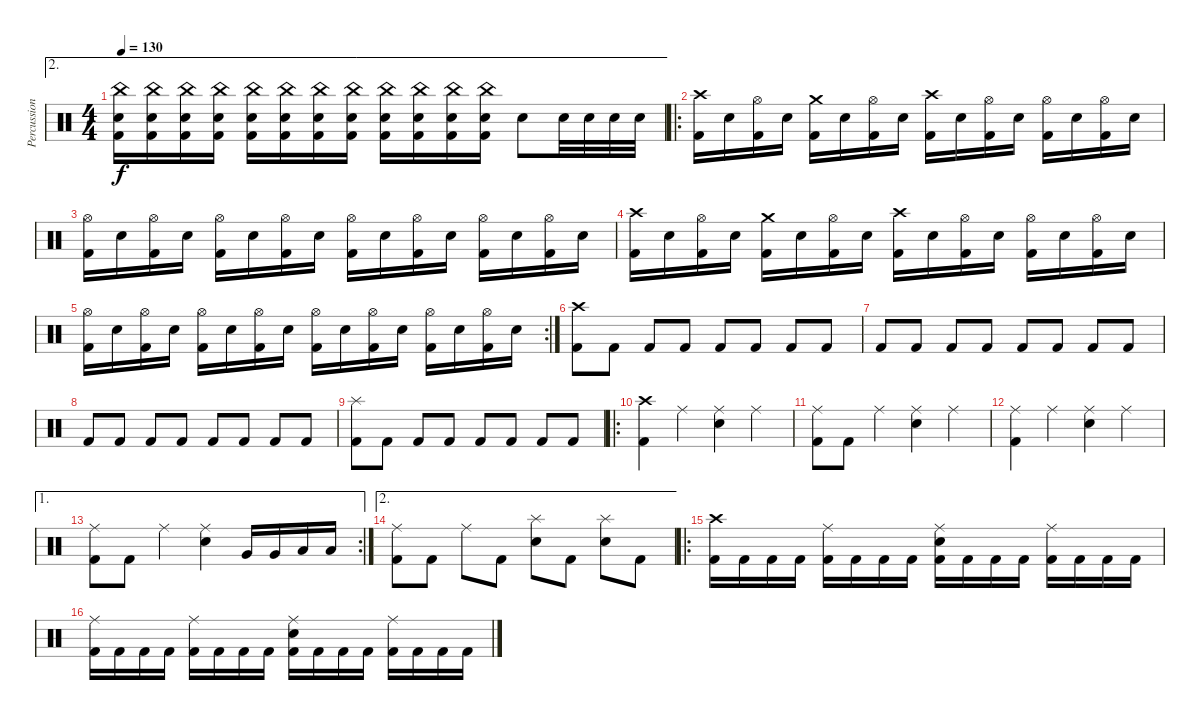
\track ("Percussion" "Percussion") {instrument percussion}
\staff {score}
\articulation defaults
\ae 2
\ts (4 4)
\tempo 130
\clef neutral
\ks c
("China (hit)" "Electric Snare (hit)" "Kick (hit) 2").16{dy f} ("China (hit)" "Electric Snare (hit)" "Kick (hit) 2").16 ("China (hit)" "Electric Snare (hit)" "Kick (hit) 2").16 ("China (hit)" "Electric Snare (hit)" "Kick (hit) 2").16 ("China (hit)" "Electric Snare (hit)" "Kick (hit) 2").16 ("China (hit)" "Electric Snare (hit)" "Kick (hit) 2").16 ("China (hit)" "Electric Snare (hit)" "Kick (hit) 2").16 ("China (hit)" "Electric Snare (hit)" "Kick (hit) 2").16 ("China (hit)" "Electric Snare (hit)" "Kick (hit) 2").16 ("China (hit)" "Electric Snare (hit)" "Kick (hit) 2").16 ("China (hit)" "Electric Snare (hit)" "Kick (hit) 2").16 ("China (hit)" "Electric Snare (hit)" "Kick (hit) 2").16 "Electric Snare (hit)".8 "Electric Snare (hit)".32 "Electric Snare (hit)".32 "Electric Snare (hit)".32 "Electric Snare (hit)".32 |
\ro
("Crash high (hit)" "Kick (hit) 2").16 "Electric Snare (hit)".16 ("Hi-Hat (open)" "Kick (hit) 2").16 "Electric Snare (hit)".16 ("Crash medium (hit)" "Kick (hit) 2").16 "Electric Snare (hit)".16 ("Hi-Hat (open)" "Kick (hit) 2").16 "Electric Snare (hit)".16 ("Crash high (hit)" "Kick (hit) 2").16 "Electric Snare (hit)".16 ("Hi-Hat (open)" "Kick (hit) 2").16 "Electric Snare (hit)".16 ("Hi-Hat (open)" "Kick (hit) 2").16 "Electric Snare (hit)".16 ("Hi-Hat (open)" "Kick (hit) 2").16 "Electric Snare (hit)".16 |
("Hi-Hat (open)" "Kick (hit) 2").16 "Electric Snare (hit)".16 ("Hi-Hat (open)" "Kick (hit) 2").16 "Electric Snare (hit)".16 ("Hi-Hat (open)" "Kick (hit) 2").16 "Electric Snare (hit)".16 ("Hi-Hat (open)" "Kick (hit) 2").16 "Electric Snare (hit)".16 ("Hi-Hat (open)" "Kick (hit) 2").16 "Electric Snare (hit)".16 ("Hi-Hat (open)" "Kick (hit) 2").16 "Electric Snare (hit)".16 ("Hi-Hat (open)" "Kick (hit) 2").16 "Electric Snare (hit)".16 ("Hi-Hat (open)" "Kick (hit) 2").16 "Electric Snare (hit)".16 |
("Crash high (hit)" "Kick (hit) 2").16 "Electric Snare (hit)".16 ("Hi-Hat (open)" "Kick (hit) 2").16 "Electric Snare (hit)".16 ("Crash medium (hit)" "Kick (hit) 2").16 "Electric Snare (hit)".16 ("Hi-Hat (open)" "Kick (hit) 2").16 "Electric Snare (hit)".16 ("Crash high (hit)" "Kick (hit) 2").16 "Electric Snare (hit)".16 ("Hi-Hat (open)" "Kick (hit) 2").16 "Electric Snare (hit)".16 ("Hi-Hat (open)" "Kick (hit) 2").16 "Electric Snare (hit)".16 ("Hi-Hat (open)" "Kick (hit) 2").16 "Electric Snare (hit)".16 |
\rc 2
("Hi-Hat (open)" "Kick (hit) 2").16 "Electric Snare (hit)".16 ("Hi-Hat (open)" "Kick (hit) 2").16 "Electric Snare (hit)".16 ("Hi-Hat (open)" "Kick (hit) 2").16 "Electric Snare (hit)".16 ("Hi-Hat (open)" "Kick (hit) 2").16 "Electric Snare (hit)".16 ("Hi-Hat (open)" "Kick (hit) 2").16 "Electric Snare (hit)".16 ("Hi-Hat (open)" "Kick (hit) 2").16 "Electric Snare (hit)".16 ("Hi-Hat (open)" "Kick (hit) 2").16 "Electric Snare (hit)".16 ("Hi-Hat (open)" "Kick (hit) 2").16 "Electric Snare (hit)".16 |
("Crash high (hit)" "Kick (hit) 2").8 "Kick (hit) 2".8 "Kick (hit) 2".8 "Kick (hit) 2".8 "Kick (hit) 2".8 "Kick (hit) 2".8 "Kick (hit) 2".8 "Kick (hit) 2".8 |
"Kick (hit) 2".8 "Kick (hit) 2".8 "Kick (hit) 2".8 "Kick (hit) 2".8 "Kick (hit) 2".8 "Kick (hit) 2".8 "Kick (hit) 2".8 "Kick (hit) 2".8 |
"Kick (hit) 2".8 "Kick (hit) 2".8 "Kick (hit) 2".8 "Kick (hit) 2".8 "Kick (hit) 2".8 "Kick (hit) 2".8 "Kick (hit) 2".8 "Kick (hit) 2".8 |
("Splash (hit)" "Kick (hit) 2").8 "Kick (hit) 2".8 "Kick (hit) 2".8 "Kick (hit) 2".8 "Kick (hit) 2".8 "Kick (hit) 2".8 "Kick (hit) 2".8 "Kick (hit) 2".8 |
\ro
("Crash high (hit)" "Kick (hit) 2").4 "Ride (middle)".4 ("Ride (middle)" "Electric Snare (hit)").4 "Ride (middle)".4 |
("Ride (middle)" "Kick (hit) 2").8 "Kick (hit) 2".8 "Ride (middle)".4 ("Ride (middle)" "Electric Snare (hit)").4 "Ride (middle)".4 |
("Ride (middle)" "Kick (hit) 2").4 "Ride (middle)".4 ("Ride (middle)" "Electric Snare (hit)").4 "Ride (middle)".4 |
\ae 1
\rc 2
("Ride (middle)" "Kick (hit) 2").8 "Kick (hit) 2".8 "Ride (middle)".4 ("Ride (middle)" "Electric Snare (hit)").4 "Very Low Tom (hit)".16 "Very Low Tom (hit)".16 "Low Floor Tom (hit)".16 "Low Floor Tom (hit)".16 |
\ae 2
("Ride (middle)" "Kick (hit) 2").8 "Kick (hit) 2".8 "Ride (middle)".8 "Kick (hit) 2".8 ("Splash (hit)" "Electric Snare (hit)").8 "Kick (hit) 2".8 ("Splash (hit)" "Electric Snare (hit)").8 "Kick (hit) 2".8 |
\ro
("Crash high (hit)" "Kick (hit) 2").16 "Kick (hit) 2".16 "Kick (hit) 2".16 "Kick (hit) 2".16 ("Ride (middle)" "Kick (hit) 2").16 "Kick (hit) 2".16 "Kick (hit) 2".16 "Kick (hit) 2".16 ("Ride (middle)" "Electric Snare (hit)" "Kick (hit) 2").16 "Kick (hit) 2".16 "Kick (hit) 2".16 "Kick (hit) 2".16 ("Ride (middle)" "Kick (hit) 2").16 "Kick (hit) 2".16 "Kick (hit) 2".16 "Kick (hit) 2".16 |
("Ride (middle)" "Kick (hit) 2").16 "Kick (hit) 2".16 "Kick (hit) 2".16 "Kick (hit) 2".16 ("Ride (middle)" "Kick (hit) 2").16 "Kick (hit) 2".16 "Kick (hit) 2".16 "Kick (hit) 2".16 ("Ride (middle)" "Electric Snare (hit)" "Kick (hit) 2").16 "Kick (hit) 2".16 "Kick (hit) 2".16 "Kick (hit) 2".16 ("Ride (middle)" "Kick (hit) 2").16 "Kick (hit) 2".16 "Kick (hit) 2".16 "Kick (hit) 2".16
